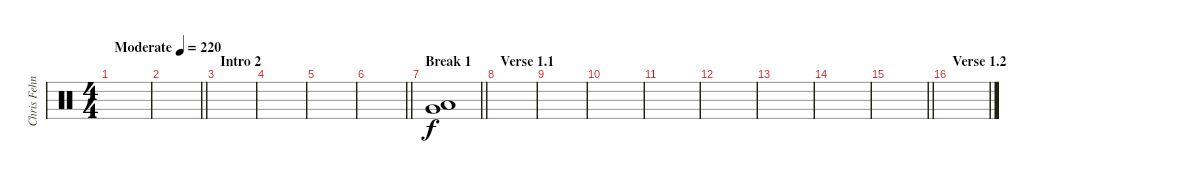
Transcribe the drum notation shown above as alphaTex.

\track ("Chris Fehn" "Chris Fehn") {instrument percussion}
\staff {score}
\articulation defaults
\ts (4 4)
\tempo (220 "Moderate")
\clef neutral
\ks c
|
\barLineRight lightlight
|
\section ("" "Intro 2")
|
|
|
\barLineRight lightlight
|
\section ("" "Break 1")
\barLineRight lightlight
("Very Low Tom (hit)" "Low Floor Tom (hit)").1 |
\section ("" "Verse 1.1")
|
|
|
|
|
|
|
\barLineRight lightlight
|
\section ("" "Verse 1.2")
